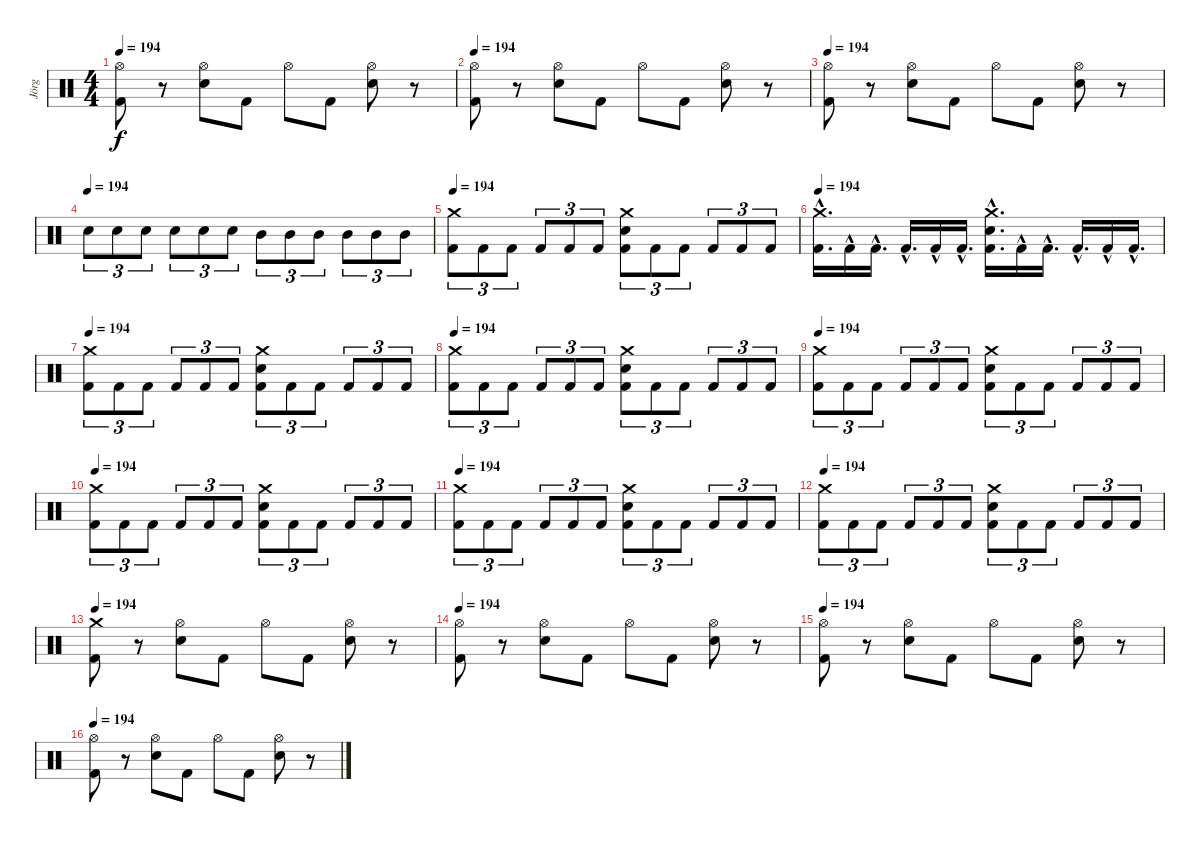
\track ("Jörg" "Jörg") {instrument percussion}
\staff {score}
\articulation defaults
\ts (4 4)
\tempo 194
\clef neutral
\ks c
("Hi-Hat (open)" "Kick (hit) 2").8{dy f} r.8 ("Snare (hit) 2" "Hi-Hat (open)").8 "Kick (hit) 2".8 "Hi-Hat (open)".8 "Kick (hit) 2".8 ("Snare (hit) 2" "Hi-Hat (open)").8 r.8 |
\tempo 194
("Hi-Hat (open)" "Kick (hit) 2").8 r.8 ("Snare (hit) 2" "Hi-Hat (open)").8 "Kick (hit) 2".8 "Hi-Hat (open)".8 "Kick (hit) 2".8 ("Snare (hit) 2" "Hi-Hat (open)").8 r.8 |
\tempo 194
("Hi-Hat (open)" "Kick (hit) 2").8 r.8 ("Snare (hit) 2" "Hi-Hat (open)").8 "Kick (hit) 2".8 "Hi-Hat (open)".8 "Kick (hit) 2".8 ("Snare (hit) 2" "Hi-Hat (open)").8 r.8 |
\tempo (194)
"Snare (hit) 2".8{tu (3 2)} "Snare (hit) 2".8{tu (3 2)} "Snare (hit) 2".8{tu (3 2)} "Snare (hit) 2".8{tu (3 2)} "Snare (hit) 2".8{tu (3 2)} "Snare (hit) 2".8{tu (3 2)} "Mid Tom (hit)".8{tu (3 2)} "Mid Tom (hit)".8{tu (3 2)} "Mid Tom (hit)".8{tu (3 2)} "Mid Tom (hit)".8{tu (3 2)} "Mid Tom (hit)".8{tu (3 2)} "Mid Tom (hit)".8{tu (3 2)} |
\tempo 194
("Crash medium (hit)" "Kick (hit) 2").8{tu (3 2)} "Kick (hit) 2".8{tu (3 2)} "Kick (hit) 2".8{tu (3 2)} "Kick (hit) 2".8{tu (3 2)} "Kick (hit) 2".8{tu (3 2)} "Kick (hit) 2".8{tu (3 2)} ("Snare (hit) 2" "Crash medium (hit)" "Kick (hit) 2").8{tu (3 2)} "Kick (hit) 2".8{tu (3 2)} "Kick (hit) 2".8{tu (3 2)} "Kick (hit) 2".8{tu (3 2)} "Kick (hit) 2".8{tu (3 2)} "Kick (hit) 2".8{tu (3 2)} |
\tempo 194
("Crash medium (hit)" "Kick (hit) 2"{hac}).16{d} "Kick (hit) 2"{hac}.16 "Kick (hit) 2"{hac}.16{d} "Kick (hit) 2"{hac}.16{d} "Kick (hit) 2"{hac}.16 "Kick (hit) 2"{hac}.16{d} ("Snare (hit) 2" "Crash medium (hit)" "Kick (hit) 2"{hac}).16{d} "Kick (hit) 2"{hac}.16 "Kick (hit) 2"{hac}.16{d} "Kick (hit) 2"{hac}.16{d} "Kick (hit) 2"{hac}.16 "Kick (hit) 2"{hac}.16{d} |
\tempo 194
("Crash medium (hit)" "Kick (hit) 2").8{tu (3 2)} "Kick (hit) 2".8{tu (3 2)} "Kick (hit) 2".8{tu (3 2)} "Kick (hit) 2".8{tu (3 2)} "Kick (hit) 2".8{tu (3 2)} "Kick (hit) 2".8{tu (3 2)} ("Snare (hit) 2" "Crash medium (hit)" "Kick (hit) 2").8{tu (3 2)} "Kick (hit) 2".8{tu (3 2)} "Kick (hit) 2".8{tu (3 2)} "Kick (hit) 2".8{tu (3 2)} "Kick (hit) 2".8{tu (3 2)} "Kick (hit) 2".8{tu (3 2)} |
\tempo 194
("Crash medium (hit)" "Kick (hit) 2").8{tu (3 2)} "Kick (hit) 2".8{tu (3 2)} "Kick (hit) 2".8{tu (3 2)} "Kick (hit) 2".8{tu (3 2)} "Kick (hit) 2".8{tu (3 2)} "Kick (hit) 2".8{tu (3 2)} ("Snare (hit) 2" "Crash medium (hit)" "Kick (hit) 2").8{tu (3 2)} "Kick (hit) 2".8{tu (3 2)} "Kick (hit) 2".8{tu (3 2)} "Kick (hit) 2".8{tu (3 2)} "Kick (hit) 2".8{tu (3 2)} "Kick (hit) 2".8{tu (3 2)} |
\tempo 194
("Crash medium (hit)" "Kick (hit) 2").8{tu (3 2)} "Kick (hit) 2".8{tu (3 2)} "Kick (hit) 2".8{tu (3 2)} "Kick (hit) 2".8{tu (3 2)} "Kick (hit) 2".8{tu (3 2)} "Kick (hit) 2".8{tu (3 2)} ("Snare (hit) 2" "Crash medium (hit)" "Kick (hit) 2").8{tu (3 2)} "Kick (hit) 2".8{tu (3 2)} "Kick (hit) 2".8{tu (3 2)} "Kick (hit) 2".8{tu (3 2)} "Kick (hit) 2".8{tu (3 2)} "Kick (hit) 2".8{tu (3 2)} |
\tempo 194
("Crash medium (hit)" "Kick (hit) 2").8{tu (3 2)} "Kick (hit) 2".8{tu (3 2)} "Kick (hit) 2".8{tu (3 2)} "Kick (hit) 2".8{tu (3 2)} "Kick (hit) 2".8{tu (3 2)} "Kick (hit) 2".8{tu (3 2)} ("Snare (hit) 2" "Crash medium (hit)" "Kick (hit) 2").8{tu (3 2)} "Kick (hit) 2".8{tu (3 2)} "Kick (hit) 2".8{tu (3 2)} "Kick (hit) 2".8{tu (3 2)} "Kick (hit) 2".8{tu (3 2)} "Kick (hit) 2".8{tu (3 2)} |
\tempo 194
("Crash medium (hit)" "Kick (hit) 2").8{tu (3 2)} "Kick (hit) 2".8{tu (3 2)} "Kick (hit) 2".8{tu (3 2)} "Kick (hit) 2".8{tu (3 2)} "Kick (hit) 2".8{tu (3 2)} "Kick (hit) 2".8{tu (3 2)} ("Snare (hit) 2" "Crash medium (hit)" "Kick (hit) 2").8{tu (3 2)} "Kick (hit) 2".8{tu (3 2)} "Kick (hit) 2".8{tu (3 2)} "Kick (hit) 2".8{tu (3 2)} "Kick (hit) 2".8{tu (3 2)} "Kick (hit) 2".8{tu (3 2)} |
\tempo 194
("Crash medium (hit)" "Kick (hit) 2").8{tu (3 2)} "Kick (hit) 2".8{tu (3 2)} "Kick (hit) 2".8{tu (3 2)} "Kick (hit) 2".8{tu (3 2)} "Kick (hit) 2".8{tu (3 2)} "Kick (hit) 2".8{tu (3 2)} ("Snare (hit) 2" "Crash medium (hit)" "Kick (hit) 2").8{tu (3 2)} "Kick (hit) 2".8{tu (3 2)} "Kick (hit) 2".8{tu (3 2)} "Kick (hit) 2".8{tu (3 2)} "Kick (hit) 2".8{tu (3 2)} "Kick (hit) 2".8{tu (3 2)} |
\tempo 194
("Crash medium (hit)" "Kick (hit) 2").8 r.8 ("Snare (hit) 2" "Hi-Hat (open)").8 "Kick (hit) 2".8 "Hi-Hat (open)".8 "Kick (hit) 2".8 ("Snare (hit) 2" "Hi-Hat (open)").8 r.8 |
\tempo 194
("Hi-Hat (open)" "Kick (hit) 2").8 r.8 ("Snare (hit) 2" "Hi-Hat (open)").8 "Kick (hit) 2".8 "Hi-Hat (open)".8 "Kick (hit) 2".8 ("Snare (hit) 2" "Hi-Hat (open)").8 r.8 |
\tempo 194
("Hi-Hat (open)" "Kick (hit) 2").8 r.8 ("Snare (hit) 2" "Hi-Hat (open)").8 "Kick (hit) 2".8 "Hi-Hat (open)".8 "Kick (hit) 2".8 ("Snare (hit) 2" "Hi-Hat (open)").8 r.8 |
\tempo 194
("Hi-Hat (open)" "Kick (hit) 2").8 r.8 ("Snare (hit) 2" "Hi-Hat (open)").8 "Kick (hit) 2".8 "Hi-Hat (open)".8 "Kick (hit) 2".8 ("Snare (hit) 2" "Hi-Hat (open)").8 r.8
